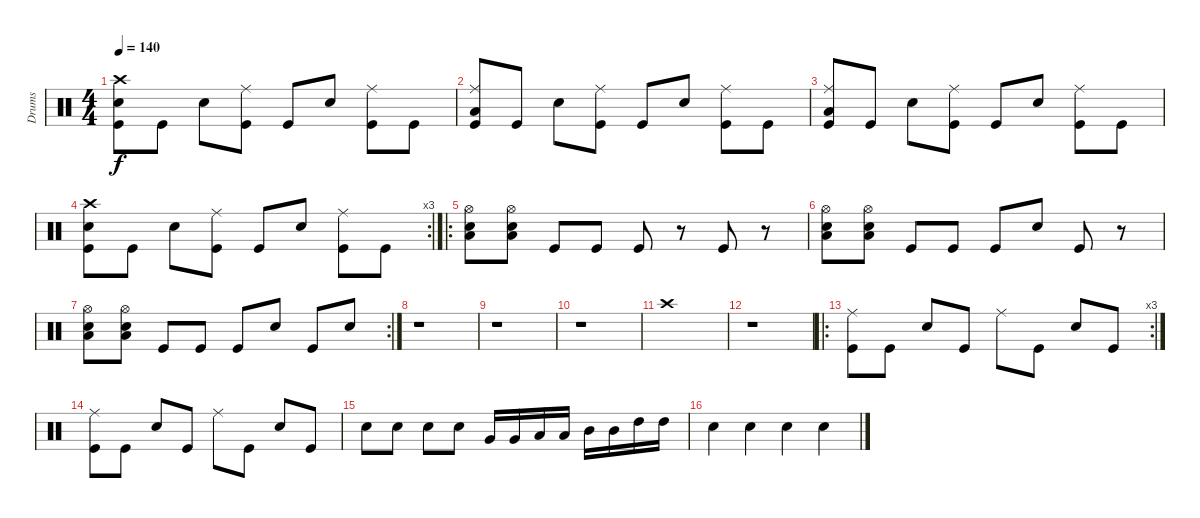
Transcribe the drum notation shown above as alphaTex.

\track ("Drums" "Drums") {instrument percussion}
\staff {score}
\articulation defaults
\ts (4 4)
\tempo 140
\clef neutral
\ks c
("Crash high (hit)" "Snare (hit) 2" "Kick (hit)").8{dy f} "Kick (hit)".8 "Snare (hit) 2".8 ("Ride (middle)" "Kick (hit)").8 "Kick (hit)".8 "Snare (hit) 2".8 ("Ride (middle)" "Kick (hit)").8 "Kick (hit)".8 |
("Ride (middle)" "Low Floor Tom (hit)" "Kick (hit)").8 "Kick (hit)".8 "Snare (hit) 2".8 ("Ride (middle)" "Kick (hit)").8 "Kick (hit)".8 "Snare (hit) 2".8 ("Ride (middle)" "Kick (hit)").8 "Kick (hit)".8 |
("Ride (middle)" "Low Floor Tom (hit)" "Kick (hit)").8 "Kick (hit)".8 "Snare (hit) 2".8 ("Ride (middle)" "Kick (hit)").8 "Kick (hit)".8 "Snare (hit) 2".8 ("Ride (middle)" "Kick (hit)").8 "Kick (hit)".8 |
\rc 3
("Crash high (hit)" "Snare (hit) 2" "Kick (hit)").8 "Kick (hit)".8 "Snare (hit) 2".8 ("Ride (middle)" "Kick (hit)").8 "Kick (hit)".8 "Snare (hit) 2".8 ("Ride (middle)" "Kick (hit)").8 "Kick (hit)".8 |
\ro
("Hi-Hat (open)" "Snare (hit) 2" "Low Floor Tom (hit)").8 ("Hi-Hat (open)" "Snare (hit) 2" "Low Floor Tom (hit)").8 "Kick (hit)".8 "Kick (hit)".8 "Kick (hit)".8 r.8 "Kick (hit)".8 r.8 |
("Hi-Hat (open)" "Snare (hit) 2" "Low Floor Tom (hit)").8 ("Hi-Hat (open)" "Snare (hit) 2" "Low Floor Tom (hit)").8 "Kick (hit)".8 "Kick (hit)".8 "Kick (hit)".8 "Snare (hit) 2".8 "Kick (hit)".8 r.8 |
\rc 2
("Hi-Hat (open)" "Snare (hit) 2" "Low Floor Tom (hit)").8 ("Hi-Hat (open)" "Snare (hit) 2" "Low Floor Tom (hit)").8 "Kick (hit)".8 "Kick (hit)".8 "Kick (hit)".8 "Snare (hit) 2".8 "Kick (hit)".8 "Snare (hit) 2".8 |
r.1 |
r.1 |
r.1 |
"Crash high (hit)".1 |
r.1 |
\ro
\rc 3
("Ride (middle)" "Kick (hit)").8 "Kick (hit)".8 "Snare (hit) 2".8 "Kick (hit)".8 "Ride (middle)".8 "Kick (hit)".8 "Snare (hit) 2".8 "Kick (hit)".8 |
("Ride (middle)" "Kick (hit)").8 "Kick (hit)".8 "Snare (hit) 2".8 "Kick (hit)".8 "Ride (middle)".8 "Kick (hit)".8 "Snare (hit) 2".8 "Kick (hit)".8 |
"Snare (hit) 2".8 "Snare (hit) 2".8 "Snare (hit) 2".8 "Snare (hit) 2".8 "Very Low Tom (hit)".16 "Very Low Tom (hit)".16 "Low Tom (hit)".16 "Low Tom (hit)".16 "Mid Tom (hit)".16 "Mid Tom (hit)".16 "High Tom (hit)".16 "High Tom (hit)".16 |
"Snare (hit) 2".4 "Snare (hit) 2".4 "Snare (hit) 2".4 "Snare (hit) 2".4
